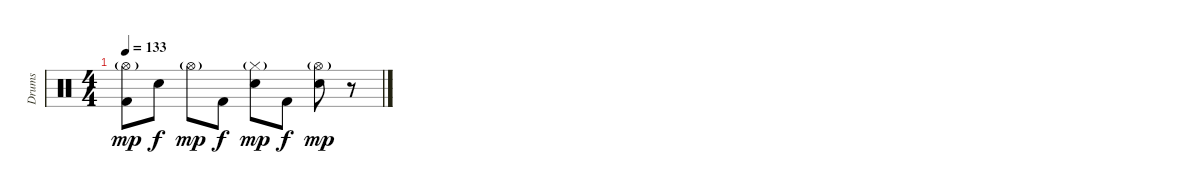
\track ("Drums" "Drums") {instrument percussion}
\staff {score}
\articulation defaults
\ts (4 4)
\tempo 133
\clef neutral
\ks c
("Hi-Hat (open)"{g} "Kick (hit) 2").8{dy mp} "Electric Snare (hit)".8{dy f} "Hi-Hat (open)"{g}.8{dy mp} "Kick (hit) 2".8{dy f} ("Hi-Hat (closed)"{g} "Electric Snare (hit)").8{dy mp} "Kick (hit) 2".8{dy f} ("Hi-Hat (open)"{g} "Electric Snare (hit)").8{dy mp} r.8
